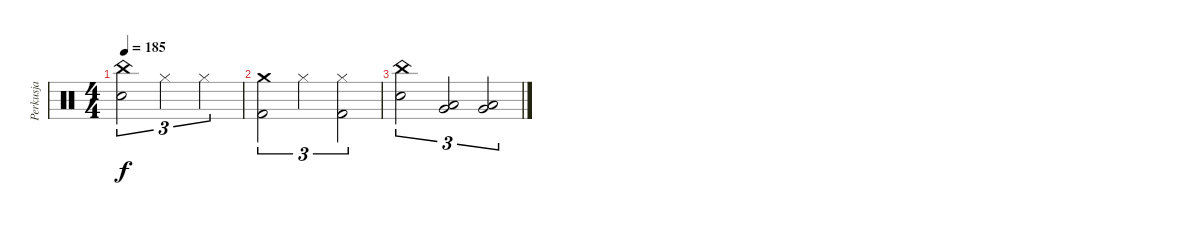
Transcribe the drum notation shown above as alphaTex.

\track ("Perkusja" "Perkusja") {instrument percussion}
\staff {score}
\articulation defaults
\ts (4 4)
\tempo 185
\clef neutral
\ks c
("Snare (hit) 2" "China (hit)").2{tu (3 2) dy f} "Hi-Hat (closed)".2{tu (3 2)} "Hi-Hat (closed)".2{tu (3 2)} |
("Kick (hit) 2" "Crash medium (hit)").2{tu (3 2)} "Hi-Hat (closed)".2{tu (3 2)} ("Kick (hit) 2" "Hi-Hat (closed)").2{tu (3 2)} |
("China (hit)" "Snare (hit) 2").2{tu (3 2)} ("Low Tom (hit)" "Very Low Tom (hit)").2{tu (3 2)} ("Very Low Tom (hit)" "Low Floor Tom (hit)").2{tu (3 2)}
